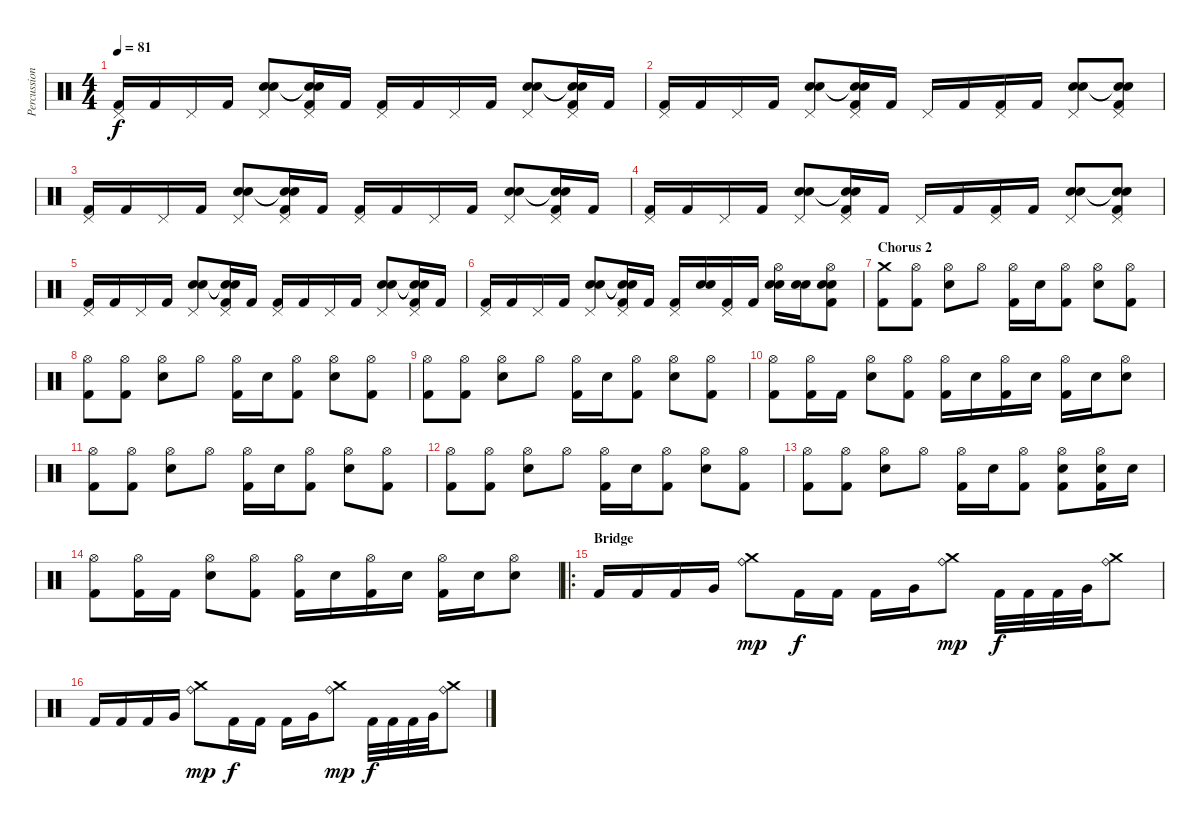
\track ("Percussion" "Percussion") {instrument percussion}
\staff {score}
\articulation defaults
\ts (4 4)
\tempo 81
\clef neutral
\ks c
("Pedal Hi-Hat (hit)" "Kick (hit) 2").16{dy f} "Kick (hit) 2".16 "Pedal Hi-Hat (hit)".16 "Kick (hit) 2".16 ("Pedal Hi-Hat (hit)" "Snare (hit) 2" "Snare (hit) 2").8 ("Pedal Hi-Hat (hit)" "Snare (hit)"{t} "Snare (hit)"{t} "Kick (hit) 2").16 "Kick (hit) 2".16 ("Pedal Hi-Hat (hit)" "Kick (hit) 2").16 "Kick (hit) 2".16 "Pedal Hi-Hat (hit)".16 "Kick (hit) 2".16 ("Pedal Hi-Hat (hit)" "Snare (hit) 2" "Snare (hit) 2").8 ("Pedal Hi-Hat (hit)" "Snare (hit)"{t} "Snare (hit)"{t} "Kick (hit) 2").16 "Kick (hit) 2".16 |
("Pedal Hi-Hat (hit)" "Kick (hit) 2").16 "Kick (hit) 2".16 "Pedal Hi-Hat (hit)".16 "Kick (hit) 2".16 ("Pedal Hi-Hat (hit)" "Snare (hit) 2" "Snare (hit) 2").8 ("Pedal Hi-Hat (hit)" "Snare (hit)"{t} "Snare (hit)"{t} "Kick (hit) 2").16 "Kick (hit) 2".16 "Pedal Hi-Hat (hit)".16 "Kick (hit) 2".16 ("Pedal Hi-Hat (hit)" "Kick (hit) 2").16 "Kick (hit) 2".16 ("Pedal Hi-Hat (hit)" "Snare (hit) 2" "Snare (hit) 2").8 ("Pedal Hi-Hat (hit)" "Snare (hit)"{t} "Snare (hit)"{t} "Kick (hit) 2").8 |
("Pedal Hi-Hat (hit)" "Kick (hit) 2").16 "Kick (hit) 2".16 "Pedal Hi-Hat (hit)".16 "Kick (hit) 2".16 ("Pedal Hi-Hat (hit)" "Snare (hit) 2" "Snare (hit) 2").8 ("Pedal Hi-Hat (hit)" "Snare (hit)"{t} "Snare (hit)"{t} "Kick (hit) 2").16 "Kick (hit) 2".16 ("Pedal Hi-Hat (hit)" "Kick (hit) 2").16 "Kick (hit) 2".16 "Pedal Hi-Hat (hit)".16 "Kick (hit) 2".16 ("Pedal Hi-Hat (hit)" "Snare (hit) 2" "Snare (hit) 2").8 ("Pedal Hi-Hat (hit)" "Snare (hit)"{t} "Snare (hit)"{t} "Kick (hit) 2").16 "Kick (hit) 2".16 |
("Pedal Hi-Hat (hit)" "Kick (hit) 2").16 "Kick (hit) 2".16 "Pedal Hi-Hat (hit)".16 "Kick (hit) 2".16 ("Pedal Hi-Hat (hit)" "Snare (hit) 2" "Snare (hit) 2").8 ("Pedal Hi-Hat (hit)" "Snare (hit)"{t} "Snare (hit)"{t} "Kick (hit) 2").16 "Kick (hit) 2".16 "Pedal Hi-Hat (hit)".16 "Kick (hit) 2".16 ("Pedal Hi-Hat (hit)" "Kick (hit) 2").16 "Kick (hit) 2".16 ("Pedal Hi-Hat (hit)" "Snare (hit) 2" "Snare (hit) 2").8 ("Pedal Hi-Hat (hit)" "Snare (hit)"{t} "Snare (hit)"{t} "Kick (hit) 2").8 |
("Pedal Hi-Hat (hit)" "Kick (hit) 2").16 "Kick (hit) 2".16 "Pedal Hi-Hat (hit)".16 "Kick (hit) 2".16 ("Pedal Hi-Hat (hit)" "Snare (hit) 2" "Snare (hit) 2").8 ("Pedal Hi-Hat (hit)" "Snare (hit)"{t} "Snare (hit)"{t} "Kick (hit) 2").16 "Kick (hit) 2".16 ("Pedal Hi-Hat (hit)" "Kick (hit) 2").16 "Kick (hit) 2".16 "Pedal Hi-Hat (hit)".16 "Kick (hit) 2".16 ("Pedal Hi-Hat (hit)" "Snare (hit) 2" "Snare (hit) 2").8 ("Pedal Hi-Hat (hit)" "Snare (hit)"{t} "Snare (hit)"{t} "Kick (hit) 2").16 "Kick (hit) 2".16 |
("Pedal Hi-Hat (hit)" "Kick (hit) 2").16 "Kick (hit) 2".16 "Pedal Hi-Hat (hit)".16 "Kick (hit) 2".16 ("Pedal Hi-Hat (hit)" "Snare (hit) 2" "Snare (hit) 2").8 ("Pedal Hi-Hat (hit)" "Snare (hit)"{t} "Snare (hit)"{t} "Kick (hit) 2").16 "Kick (hit) 2".16 ("Pedal Hi-Hat (hit)" "Kick (hit) 2").16 ("Snare (hit) 2" "Snare (hit) 2").16 ("Pedal Hi-Hat (hit)" "Kick (hit) 2").16 "Kick (hit) 2".16 ("Hi-Hat (open)" "Snare (hit) 2" "Snare (hit) 2").16 ("Snare (hit) 2" "Snare (hit) 2").16 ("Hi-Hat (open)" "Snare (hit) 2" "Snare (hit) 2" "Kick (hit) 2").8 |
\section ("" "Chorus 2")
("Crash medium (hit)" "Kick (hit) 2").8 ("Hi-Hat (open)" "Kick (hit) 2").8 ("Hi-Hat (open)" "Snare (hit) 2").8 "Hi-Hat (open)".8 ("Hi-Hat (open)" "Kick (hit) 2").16 "Snare (hit) 2".16 ("Hi-Hat (open)" "Kick (hit) 2").8 ("Hi-Hat (open)" "Snare (hit) 2").8 ("Hi-Hat (open)" "Kick (hit) 2").8 |
("Hi-Hat (open)" "Kick (hit) 2").8 ("Hi-Hat (open)" "Kick (hit) 2").8 ("Hi-Hat (open)" "Snare (hit) 2").8 "Hi-Hat (open)".8 ("Hi-Hat (open)" "Kick (hit) 2").16 "Snare (hit) 2".16 ("Hi-Hat (open)" "Kick (hit) 2").8 ("Hi-Hat (open)" "Snare (hit) 2").8 ("Hi-Hat (open)" "Kick (hit) 2").8 |
("Hi-Hat (open)" "Kick (hit) 2").8 ("Hi-Hat (open)" "Kick (hit) 2").8 ("Hi-Hat (open)" "Snare (hit) 2").8 "Hi-Hat (open)".8 ("Hi-Hat (open)" "Kick (hit) 2").16 "Snare (hit) 2".16 ("Hi-Hat (open)" "Kick (hit) 2").8 ("Hi-Hat (open)" "Snare (hit) 2").8 ("Hi-Hat (open)" "Kick (hit) 2").8 |
("Hi-Hat (open)" "Kick (hit) 2").8 ("Hi-Hat (open)" "Kick (hit) 2").16 "Kick (hit) 2".16 ("Hi-Hat (open)" "Snare (hit) 2").8 ("Hi-Hat (open)" "Kick (hit) 2").8 ("Hi-Hat (open)" "Kick (hit) 2").16 "Snare (hit) 2".16 ("Hi-Hat (open)" "Kick (hit) 2").16 "Snare (hit) 2".16 ("Hi-Hat (open)" "Kick (hit) 2").16 "Snare (hit) 2".16 ("Hi-Hat (open)" "Snare (hit) 2").8 |
("Hi-Hat (open)" "Kick (hit) 2").8 ("Hi-Hat (open)" "Kick (hit) 2").8 ("Hi-Hat (open)" "Snare (hit) 2").8 "Hi-Hat (open)".8 ("Hi-Hat (open)" "Kick (hit) 2").16 "Snare (hit) 2".16 ("Hi-Hat (open)" "Kick (hit) 2").8 ("Hi-Hat (open)" "Snare (hit) 2").8 ("Hi-Hat (open)" "Kick (hit) 2").8 |
("Hi-Hat (open)" "Kick (hit) 2").8 ("Hi-Hat (open)" "Kick (hit) 2").8 ("Hi-Hat (open)" "Snare (hit) 2").8 "Hi-Hat (open)".8 ("Hi-Hat (open)" "Kick (hit) 2").16 "Snare (hit) 2".16 ("Hi-Hat (open)" "Kick (hit) 2").8 ("Hi-Hat (open)" "Snare (hit) 2").8 ("Hi-Hat (open)" "Kick (hit) 2").8 |
("Hi-Hat (open)" "Kick (hit) 2").8 ("Hi-Hat (open)" "Kick (hit) 2").8 ("Hi-Hat (open)" "Snare (hit) 2").8 "Hi-Hat (open)".8 ("Hi-Hat (open)" "Kick (hit) 2").16 "Snare (hit) 2".16 ("Hi-Hat (open)" "Kick (hit) 2").8 ("Hi-Hat (open)" "Snare (hit) 2" "Kick (hit) 2").8 ("Hi-Hat (open)" "Snare (hit) 2" "Kick (hit) 2").16 "Snare (hit) 2".16 |
("Hi-Hat (open)" "Kick (hit) 2").8 ("Hi-Hat (open)" "Kick (hit) 2").16 "Kick (hit) 2".16 ("Hi-Hat (open)" "Snare (hit) 2").8 ("Hi-Hat (open)" "Kick (hit) 2").8 ("Hi-Hat (open)" "Kick (hit) 2").16 "Snare (hit) 2".16 ("Hi-Hat (open)" "Kick (hit) 2").16 "Snare (hit) 2".16 ("Hi-Hat (open)" "Kick (hit) 2").16 "Snare (hit) 2".16 ("Hi-Hat (open)" "Snare (hit) 2").8 |
\ro
\section ("" "Bridge")
"Kick (hit) 2".16 "Kick (hit) 2".16 "Kick (hit) 2".16 "Very Low Tom (hit)".16 ("Crash medium (hit)" "Ride (bell)").8{dy mp} "Kick (hit) 2".16{dy f} "Kick (hit) 2".16 "Kick (hit) 2".16 "Very Low Tom (hit)".16 ("Crash medium (hit)" "Ride (bell)").8{dy mp} "Kick (hit) 2".32{dy f} "Kick (hit) 2".32 "Kick (hit) 2".32 "Very Low Tom (hit)".32 ("Crash medium (hit)" "Ride (bell)").8 |
"Kick (hit) 2".16 "Kick (hit) 2".16 "Kick (hit) 2".16 "Very Low Tom (hit)".16 ("Crash medium (hit)" "Ride (bell)").8{dy mp} "Kick (hit) 2".16{dy f} "Kick (hit) 2".16 "Kick (hit) 2".16 "Very Low Tom (hit)".16 ("Crash medium (hit)" "Ride (bell)").8{dy mp} "Kick (hit) 2".32{dy f} "Kick (hit) 2".32 "Kick (hit) 2".32 "Very Low Tom (hit)".32 ("Crash medium (hit)" "Ride (bell)").8
